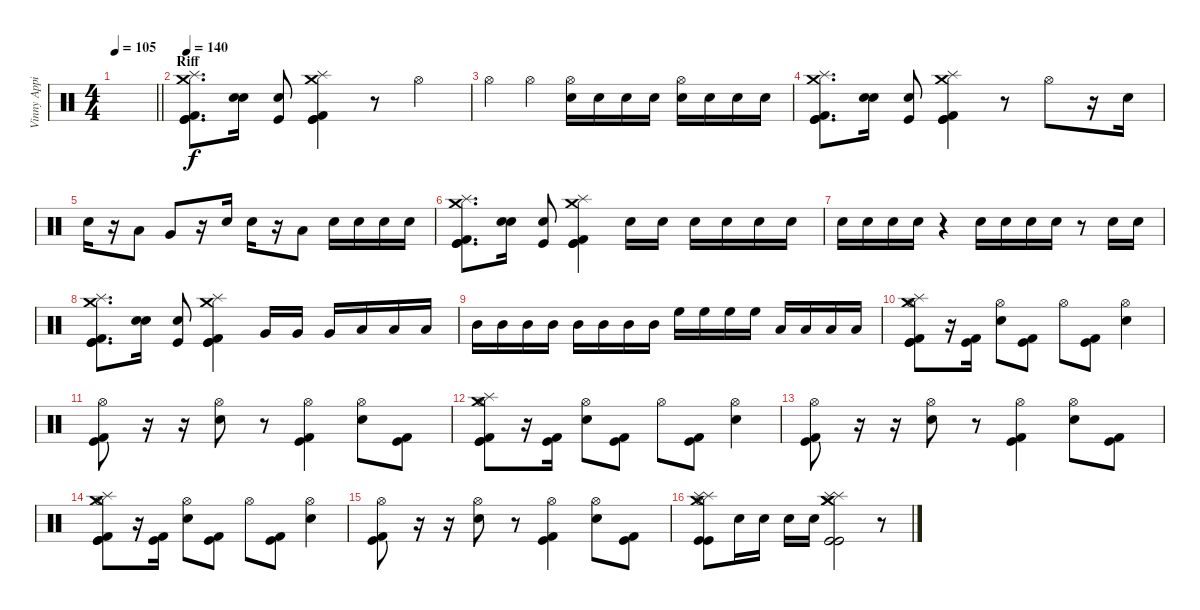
\track ("Vinny Appice" "Vinny Appi") {instrument percussion}
\staff {score}
\articulation defaults
\ts (4 4)
\tempo 105
\clef neutral
\barLineRight lightlight
\ks c
|
\section ("" "Riff")
\tempo 140
("Crash medium (hit)" "Splash (hit)" "Kick (hit)" "Kick (hit) 2" "Kick (hit)").8{d} ("Snare (hit) 2" "Electric Snare (hit)").16 ("Kick (hit)" "Electric Snare (hit)").8 ("Crash medium (hit)" "Splash (hit)" "Kick (hit)" "Kick (hit) 2" "Kick (hit)").4 r.8 "Hi-Hat (open)".4 |
"Hi-Hat (open)".4 "Hi-Hat (open)".4 ("Hi-Hat (open)" "Snare (hit) 2").16 "Snare (hit) 2".16 "Snare (hit) 2".16 "Snare (hit) 2".16 ("Hi-Hat (open)" "Snare (hit) 2").16 "Snare (hit) 2".16 "Snare (hit) 2".16 "Snare (hit) 2".16 |
("Crash medium (hit)" "Splash (hit)" "Kick (hit)" "Kick (hit) 2" "Kick (hit)").8{d} ("Snare (hit) 2" "Electric Snare (hit)").16 ("Kick (hit)" "Electric Snare (hit)").8 ("Crash medium (hit)" "Splash (hit)" "Kick (hit)" "Kick (hit) 2" "Kick (hit)").4 r.8 "Hi-Hat (open)".8 r.16 "Snare (hit) 2".16 |
"Snare (hit) 2".16 r.16 "Low Tom (hit)".8 "Very Low Tom (hit)".8 r.16 "Snare (hit) 2".16 "Snare (hit) 2".16 r.16 "Low Tom (hit)".8 "Snare (hit) 2".16 "Snare (hit) 2".16 "Snare (hit) 2".16 "Snare (hit) 2".16 |
("Crash medium (hit)" "Splash (hit)" "Kick (hit)" "Kick (hit) 2" "Kick (hit)").8{d} ("Snare (hit) 2" "Electric Snare (hit)").16 ("Kick (hit)" "Electric Snare (hit)").8 ("Crash medium (hit)" "Splash (hit)" "Kick (hit)" "Kick (hit) 2" "Kick (hit)").4 "Snare (hit) 2".16 "Snare (hit) 2".16 "Snare (hit) 2".16 "Snare (hit) 2".16 "Snare (hit) 2".16 "Snare (hit) 2".16 |
"Snare (hit) 2".16 "Snare (hit) 2".16 "Snare (hit) 2".16 "Snare (hit) 2".16 r.4 "Snare (hit) 2".16 "Snare (hit) 2".16 "Snare (hit) 2".16 "Snare (hit) 2".16 r.8 "Snare (hit) 2".16 "Snare (hit) 2".16 |
("Crash medium (hit)" "Splash (hit)" "Kick (hit)" "Kick (hit) 2" "Kick (hit)").8{d} ("Snare (hit) 2" "Electric Snare (hit)").16 ("Kick (hit)" "Electric Snare (hit)").8 ("Crash medium (hit)" "Splash (hit)" "Kick (hit)" "Kick (hit) 2" "Kick (hit)").4 "Very Low Tom (hit)".16 "Very Low Tom (hit)".16 "Very Low Tom (hit)".16 "Low Tom (hit)".16 "Low Tom (hit)".16 "Low Tom (hit)".16 |
"Mid Tom (hit)".16 "Mid Tom (hit)".16 "Mid Tom (hit)".16 "Mid Tom (hit)".16 "Mid Tom (hit)".16 "Mid Tom (hit)".16 "Mid Tom (hit)".16 "Mid Tom (hit)".16 "High Floor Tom (hit)".16 "High Floor Tom (hit)".16 "High Floor Tom (hit)".16 "High Floor Tom (hit)".16 "Low Floor Tom (hit)".16 "Low Floor Tom (hit)".16 "Low Floor Tom (hit)".16 "Low Floor Tom (hit)".16 |
("Hi-Hat (open)" "Kick (hit)" "Kick (hit) 2" "Splash (hit)" "Crash medium (hit)" "Kick (hit)").8 r.16 ("Kick (hit)" "Kick (hit) 2").16 ("Hi-Hat (open)" "Snare (hit) 2").8 ("Kick (hit)" "Kick (hit) 2").8 "Hi-Hat (open)".8 ("Kick (hit)" "Kick (hit) 2").8 ("Hi-Hat (open)" "Snare (hit) 2").4 |
("Hi-Hat (open)" "Kick (hit)" "Kick (hit) 2").8 r.16 r.16 ("Hi-Hat (open)" "Snare (hit) 2").8 r.8 ("Hi-Hat (open)" "Kick (hit)" "Kick (hit) 2").4 ("Hi-Hat (open)" "Snare (hit) 2").8 ("Kick (hit) 2" "Kick (hit)").8 |
("Hi-Hat (open)" "Kick (hit)" "Kick (hit) 2" "Splash (hit)" "Crash medium (hit)" "Kick (hit)").8 r.16 ("Kick (hit)" "Kick (hit) 2").16 ("Hi-Hat (open)" "Snare (hit) 2").8 ("Kick (hit)" "Kick (hit) 2").8 "Hi-Hat (open)".8 ("Kick (hit)" "Kick (hit) 2").8 ("Hi-Hat (open)" "Snare (hit) 2").4 |
("Hi-Hat (open)" "Kick (hit)" "Kick (hit) 2").8 r.16 r.16 ("Hi-Hat (open)" "Snare (hit) 2").8 r.8 ("Hi-Hat (open)" "Kick (hit)" "Kick (hit) 2").4 ("Hi-Hat (open)" "Snare (hit) 2").8 ("Kick (hit) 2" "Kick (hit)").8 |
("Hi-Hat (open)" "Kick (hit)" "Kick (hit) 2" "Splash (hit)" "Crash medium (hit)" "Kick (hit)").8 r.16 ("Kick (hit)" "Kick (hit) 2").16 ("Hi-Hat (open)" "Snare (hit) 2").8 ("Kick (hit)" "Kick (hit) 2").8 "Hi-Hat (open)".8 ("Kick (hit)" "Kick (hit) 2").8 ("Hi-Hat (open)" "Snare (hit) 2").4 |
("Hi-Hat (open)" "Kick (hit)" "Kick (hit) 2").8 r.16 r.16 ("Hi-Hat (open)" "Snare (hit) 2").8 r.8 ("Hi-Hat (open)" "Kick (hit)" "Kick (hit) 2").4 ("Hi-Hat (open)" "Snare (hit) 2").8 ("Kick (hit) 2" "Kick (hit)").8 |
("Hi-Hat (open)" "Kick (hit)" "Kick (hit)" "Splash (hit)" "Crash medium (hit)" "Splash (hit)").8 "Snare (hit) 2".16 "Snare (hit) 2".16 "Snare (hit) 2".16 "Snare (hit) 2".16 ("Splash (hit)" "Splash (hit)" "Crash medium (hit)" "Crash medium (hit)" "Kick (hit)" "Kick (hit)").2 r.8
